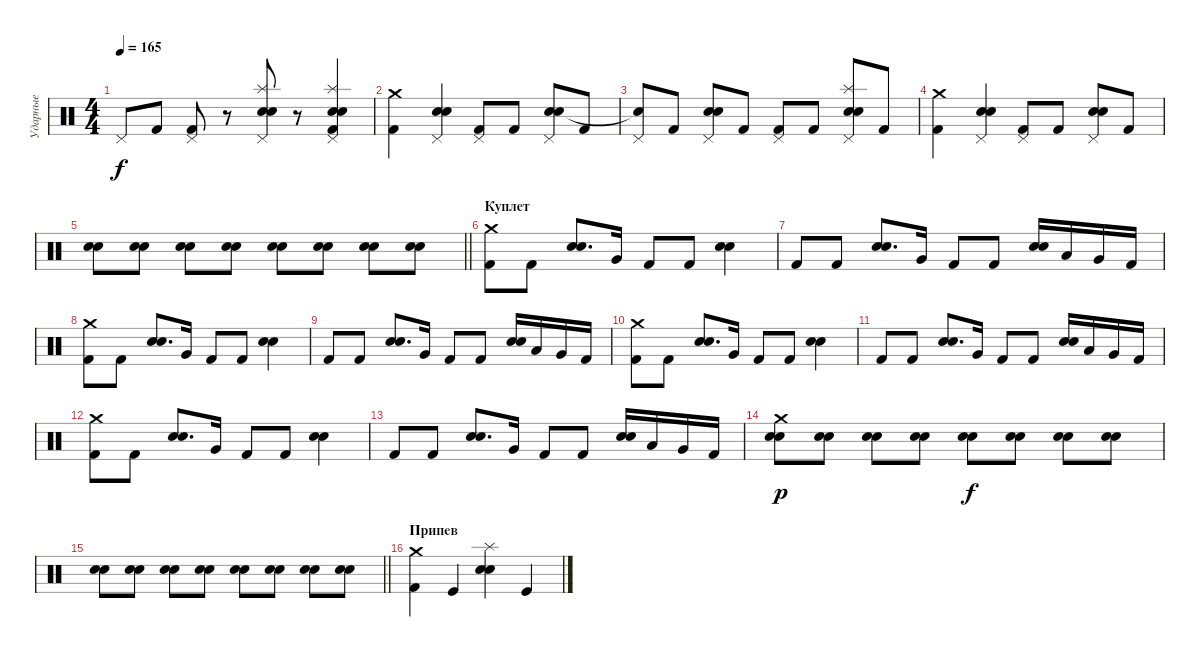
\track ("Ударные" "Ударные") {instrument percussion}
\staff {score}
\articulation defaults
\ts (4 4)
\tempo 165
\clef neutral
\ks c "Pedal Hi-Hat (hit)".8{dy f} "Kick (hit) 2".8
("Pedal Hi-Hat (hit)" "Kick (hit) 2").8 r.8 ("Pedal Hi-Hat (hit)" "Splash (hit)" "Electric Snare (hit)" "Snare (hit) 2").8 r.8 ("Pedal Hi-Hat (hit)" "Splash (hit)" "Electric Snare (hit)" "Snare (hit) 2" "Kick (hit) 2").4 |
("Crash medium (hit)" "Kick (hit) 2").4 ("Pedal Hi-Hat (hit)" "Electric Snare (hit)" "Snare (hit) 2").4 ("Pedal Hi-Hat (hit)" "Kick (hit) 2").8 "Kick (hit) 2".8 ("Pedal Hi-Hat (hit)" "Electric Snare (hit)" "Snare (hit) 2").8 "Kick (hit) 2".8 |
("Pedal Hi-Hat (hit)" "Snare (hit)"{t}).8 "Kick (hit) 2".8 ("Pedal Hi-Hat (hit)" "Electric Snare (hit)" "Snare (hit) 2").8 "Kick (hit) 2".8 ("Pedal Hi-Hat (hit)" "Kick (hit) 2").8 "Kick (hit) 2".8 ("Pedal Hi-Hat (hit)" "Splash (hit)" "Electric Snare (hit)" "Snare (hit) 2").8 "Kick (hit) 2".8 |
("Crash medium (hit)" "Kick (hit) 2").4 ("Pedal Hi-Hat (hit)" "Electric Snare (hit)" "Snare (hit) 2").4 ("Pedal Hi-Hat (hit)" "Kick (hit) 2").8 "Kick (hit) 2".8 ("Pedal Hi-Hat (hit)" "Electric Snare (hit)" "Snare (hit) 2").8 "Kick (hit) 2".8 |
\barLineRight lightlight
("Electric Snare (hit)" "Snare (hit) 2").8{volume 3} ("Electric Snare (hit)" "Snare (hit) 2").8{volume 13} ("Electric Snare (hit)" "Snare (hit) 2").8 ("Electric Snare (hit)" "Snare (hit) 2").8 ("Electric Snare (hit)" "Snare (hit) 2").8 ("Electric Snare (hit)" "Snare (hit) 2").8 ("Electric Snare (hit)" "Snare (hit) 2").8 ("Electric Snare (hit)" "Snare (hit) 2").8 |
\section ("" "Куплет")
("Crash medium (hit)" "Kick (hit) 2").8 "Kick (hit) 2".8 ("Electric Snare (hit)" "Snare (hit) 2").8{d} "Very Low Tom (hit)".16 "Kick (hit) 2".8 "Kick (hit) 2".8 ("Electric Snare (hit)" "Snare (hit) 2").4 |
"Kick (hit) 2".8 "Kick (hit) 2".8 ("Electric Snare (hit)" "Snare (hit) 2").8{d} "Very Low Tom (hit)".16 "Kick (hit) 2".8 "Kick (hit) 2".8 ("Electric Snare (hit)" "Snare (hit) 2").16 "Low Tom (hit)".16 "Very Low Tom (hit)".16 "Kick (hit) 2".16 |
("Crash medium (hit)" "Kick (hit) 2").8 "Kick (hit) 2".8 ("Electric Snare (hit)" "Snare (hit) 2").8{d} "Very Low Tom (hit)".16 "Kick (hit) 2".8 "Kick (hit) 2".8 ("Electric Snare (hit)" "Snare (hit) 2").4 |
"Kick (hit) 2".8 "Kick (hit) 2".8 ("Electric Snare (hit)" "Snare (hit) 2").8{d} "Very Low Tom (hit)".16 "Kick (hit) 2".8 "Kick (hit) 2".8 ("Electric Snare (hit)" "Snare (hit) 2").16 "Low Tom (hit)".16 "Very Low Tom (hit)".16 "Kick (hit) 2".16 |
("Crash medium (hit)" "Kick (hit) 2").8 "Kick (hit) 2".8 ("Electric Snare (hit)" "Snare (hit) 2").8{d} "Very Low Tom (hit)".16 "Kick (hit) 2".8 "Kick (hit) 2".8 ("Electric Snare (hit)" "Snare (hit) 2").4 |
"Kick (hit) 2".8 "Kick (hit) 2".8 ("Electric Snare (hit)" "Snare (hit) 2").8{d} "Very Low Tom (hit)".16 "Kick (hit) 2".8 "Kick (hit) 2".8 ("Electric Snare (hit)" "Snare (hit) 2").16 "Low Tom (hit)".16 "Very Low Tom (hit)".16 "Kick (hit) 2".16 |
("Crash medium (hit)" "Kick (hit) 2").8 "Kick (hit) 2".8 ("Electric Snare (hit)" "Snare (hit) 2").8{d} "Very Low Tom (hit)".16 "Kick (hit) 2".8 "Kick (hit) 2".8 ("Electric Snare (hit)" "Snare (hit) 2").4 |
"Kick (hit) 2".8 "Kick (hit) 2".8 ("Electric Snare (hit)" "Snare (hit) 2").8{d} "Very Low Tom (hit)".16 "Kick (hit) 2".8 "Kick (hit) 2".8 ("Electric Snare (hit)" "Snare (hit) 2").16 "Low Tom (hit)".16 "Very Low Tom (hit)".16 "Kick (hit) 2".16 |
("Crash medium (hit)" "Electric Snare (hit)" "Snare (hit) 2").8{dy p} ("Electric Snare (hit)" "Snare (hit) 2").8 ("Electric Snare (hit)" "Snare (hit) 2").8 ("Electric Snare (hit)" "Snare (hit) 2").8{volume 4} ("Electric Snare (hit)" "Snare (hit) 2").8{dy f volume 13} ("Electric Snare (hit)" "Snare (hit) 2").8 ("Electric Snare (hit)" "Snare (hit) 2").8 ("Electric Snare (hit)" "Snare (hit) 2").8 |
\barLineRight lightlight
("Electric Snare (hit)" "Snare (hit) 2").8 ("Electric Snare (hit)" "Snare (hit) 2").8 ("Electric Snare (hit)" "Snare (hit) 2").8 ("Electric Snare (hit)" "Snare (hit) 2").8 ("Electric Snare (hit)" "Snare (hit) 2").8 ("Electric Snare (hit)" "Snare (hit) 2").8 ("Electric Snare (hit)" "Snare (hit) 2").8 ("Electric Snare (hit)" "Snare (hit) 2").8 |
\section ("" "Припев")
("Crash medium (hit)" "Kick (hit) 2").4 "Kick (hit)".4 ("Splash (hit)" "Electric Snare (hit)" "Snare (hit) 2").4 "Kick (hit)".4
